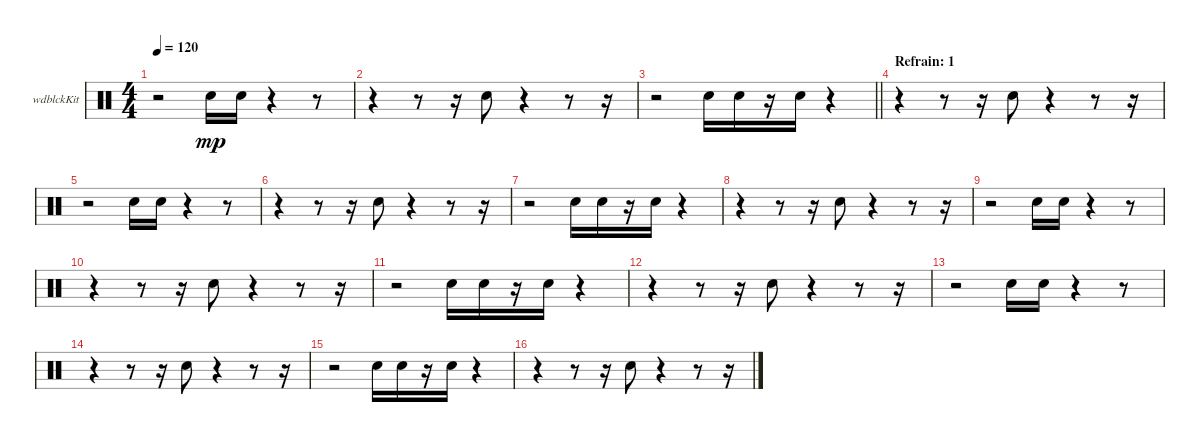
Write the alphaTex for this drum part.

\bracketExtendMode groupsimilarinstruments
\firstSystemTrackNameOrientation horizontal
\otherSystemsTrackNameOrientation horizontal
\track ("Woodblock" "wdblckKit") {instrument percussion}
\staff {score}
\articulation defaults
\ts (4 4)
\tempo 120
\clef neutral
\ks c
r.2{dy mp} "Snare (hit) 2".16 "Snare (hit) 2".16 r.4 r.8 |
r.4 r.8 r.16 "Snare (hit) 2".8 r.4 r.8 r.16 |
\barLineRight lightlight
r.2 "Snare (hit) 2".16 "Snare (hit) 2".16 r.16 "Snare (hit) 2".16 r.4 |
\section ("" "Refrain: 1")
r.4 r.8 r.16 "Snare (hit) 2".8 r.4 r.8 r.16 |
r.2 "Snare (hit) 2".16 "Snare (hit) 2".16 r.4 r.8 |
r.4 r.8 r.16 "Snare (hit) 2".8 r.4 r.8 r.16 |
r.2 "Snare (hit) 2".16 "Snare (hit) 2".16 r.16 "Snare (hit) 2".16 r.4 |
r.4 r.8 r.16 "Snare (hit) 2".8 r.4 r.8 r.16 |
r.2 "Snare (hit) 2".16 "Snare (hit) 2".16 r.4 r.8 |
r.4 r.8 r.16 "Snare (hit) 2".8 r.4 r.8 r.16 |
r.2 "Snare (hit) 2".16 "Snare (hit) 2".16 r.16 "Snare (hit) 2".16 r.4 |
r.4 r.8 r.16 "Snare (hit) 2".8 r.4 r.8 r.16 |
r.2 "Snare (hit) 2".16 "Snare (hit) 2".16 r.4 r.8 |
r.4 r.8 r.16 "Snare (hit) 2".8 r.4 r.8 r.16 |
r.2 "Snare (hit) 2".16 "Snare (hit) 2".16 r.16 "Snare (hit) 2".16 r.4 |
r.4 r.8 r.16 "Snare (hit) 2".8 r.4 r.8 r.16
